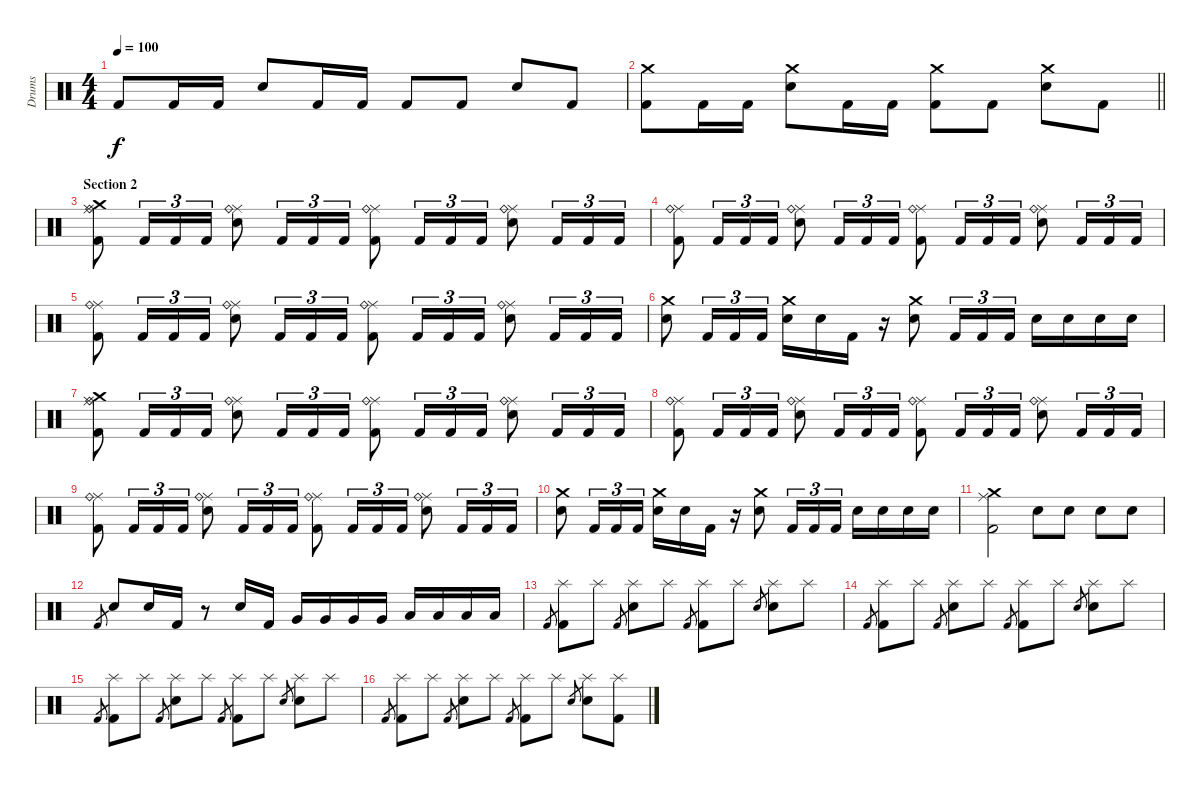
\track ("Drums" "Drums") {instrument percussion}
\staff {score}
\articulation defaults
\ts (4 4)
\tempo 100
\clef neutral
\ks c "Kick (hit) 2".8{dy f} "Kick (hit) 2".16 "Kick (hit) 2".16 "Snare (hit) 2".8 "Kick (hit) 2".16 "Kick (hit) 2".16 "Kick (hit) 2".8 "Kick (hit) 2".8 "Snare (hit) 2".8 "Kick (hit) 2".8
|
\barLineRight lightlight
("Crash medium (hit)" "Kick (hit) 2").8 "Kick (hit) 2".16 "Kick (hit) 2".16 ("Crash medium (hit)" "Snare (hit) 2").8 "Kick (hit) 2".16 "Kick (hit) 2".16 ("Crash medium (hit)" "Kick (hit) 2").8 "Kick (hit) 2".8 ("Crash medium (hit)" "Snare (hit) 2").8 "Kick (hit) 2".8 |
\section ("" "Section 2")
("Kick (hit) 2" "Crash medium (hit)" "Ride (middle)" "Ride (bell)").8 "Kick (hit) 2".16{tu (3 2)} "Kick (hit) 2".16{tu (3 2)} "Kick (hit) 2".16{tu (3 2)} ("Snare (hit) 2" "Ride (middle)" "Ride (bell)").8 "Kick (hit) 2".16{tu (3 2)} "Kick (hit) 2".16{tu (3 2)} "Kick (hit) 2".16{tu (3 2)} ("Kick (hit) 2" "Ride (middle)" "Ride (bell)").8 "Kick (hit) 2".16{tu (3 2)} "Kick (hit) 2".16{tu (3 2)} "Kick (hit) 2".16{tu (3 2)} ("Snare (hit) 2" "Ride (middle)" "Ride (bell)").8 "Kick (hit) 2".16{tu (3 2)} "Kick (hit) 2".16{tu (3 2)} "Kick (hit) 2".16{tu (3 2)} |
("Kick (hit) 2" "Ride (middle)" "Ride (bell)").8 "Kick (hit) 2".16{tu (3 2)} "Kick (hit) 2".16{tu (3 2)} "Kick (hit) 2".16{tu (3 2)} ("Snare (hit) 2" "Ride (middle)" "Ride (bell)").8 "Kick (hit) 2".16{tu (3 2)} "Kick (hit) 2".16{tu (3 2)} "Kick (hit) 2".16{tu (3 2)} ("Kick (hit) 2" "Ride (middle)" "Ride (bell)").8 "Kick (hit) 2".16{tu (3 2)} "Kick (hit) 2".16{tu (3 2)} "Kick (hit) 2".16{tu (3 2)} ("Snare (hit) 2" "Ride (middle)" "Ride (bell)").8 "Kick (hit) 2".16{tu (3 2)} "Kick (hit) 2".16{tu (3 2)} "Kick (hit) 2".16{tu (3 2)} |
("Kick (hit) 2" "Ride (middle)" "Ride (bell)").8 "Kick (hit) 2".16{tu (3 2)} "Kick (hit) 2".16{tu (3 2)} "Kick (hit) 2".16{tu (3 2)} ("Snare (hit) 2" "Ride (middle)" "Ride (bell)").8 "Kick (hit) 2".16{tu (3 2)} "Kick (hit) 2".16{tu (3 2)} "Kick (hit) 2".16{tu (3 2)} ("Kick (hit) 2" "Ride (middle)" "Ride (bell)").8 "Kick (hit) 2".16{tu (3 2)} "Kick (hit) 2".16{tu (3 2)} "Kick (hit) 2".16{tu (3 2)} ("Snare (hit) 2" "Ride (middle)" "Ride (bell)").8 "Kick (hit) 2".16{tu (3 2)} "Kick (hit) 2".16{tu (3 2)} "Kick (hit) 2".16{tu (3 2)} |
("Snare (hit) 2" "Crash medium (hit)").8 "Kick (hit) 2".16{tu (3 2)} "Kick (hit) 2".16{tu (3 2)} "Kick (hit) 2".16{tu (3 2)} ("Snare (hit) 2" "Crash medium (hit)").16 "Snare (hit) 2".16 "Kick (hit) 2".16 r.16 ("Snare (hit) 2" "Crash medium (hit)").8 "Kick (hit) 2".16{tu (3 2)} "Kick (hit) 2".16{tu (3 2)} "Kick (hit) 2".16{tu (3 2)} "Snare (hit) 2".16 "Snare (hit) 2".16 "Snare (hit) 2".16 "Snare (hit) 2".16 |
("Kick (hit) 2" "Crash medium (hit)" "Ride (middle)" "Ride (bell)").8 "Kick (hit) 2".16{tu (3 2)} "Kick (hit) 2".16{tu (3 2)} "Kick (hit) 2".16{tu (3 2)} ("Snare (hit) 2" "Ride (middle)" "Ride (bell)").8 "Kick (hit) 2".16{tu (3 2)} "Kick (hit) 2".16{tu (3 2)} "Kick (hit) 2".16{tu (3 2)} ("Kick (hit) 2" "Ride (middle)" "Ride (bell)").8 "Kick (hit) 2".16{tu (3 2)} "Kick (hit) 2".16{tu (3 2)} "Kick (hit) 2".16{tu (3 2)} ("Snare (hit) 2" "Ride (middle)" "Ride (bell)").8 "Kick (hit) 2".16{tu (3 2)} "Kick (hit) 2".16{tu (3 2)} "Kick (hit) 2".16{tu (3 2)} |
("Kick (hit) 2" "Ride (middle)" "Ride (bell)").8 "Kick (hit) 2".16{tu (3 2)} "Kick (hit) 2".16{tu (3 2)} "Kick (hit) 2".16{tu (3 2)} ("Snare (hit) 2" "Ride (middle)" "Ride (bell)").8 "Kick (hit) 2".16{tu (3 2)} "Kick (hit) 2".16{tu (3 2)} "Kick (hit) 2".16{tu (3 2)} ("Kick (hit) 2" "Ride (middle)" "Ride (bell)").8 "Kick (hit) 2".16{tu (3 2)} "Kick (hit) 2".16{tu (3 2)} "Kick (hit) 2".16{tu (3 2)} ("Snare (hit) 2" "Ride (middle)" "Ride (bell)").8 "Kick (hit) 2".16{tu (3 2)} "Kick (hit) 2".16{tu (3 2)} "Kick (hit) 2".16{tu (3 2)} |
("Kick (hit) 2" "Ride (middle)" "Ride (bell)").8 "Kick (hit) 2".16{tu (3 2)} "Kick (hit) 2".16{tu (3 2)} "Kick (hit) 2".16{tu (3 2)} ("Snare (hit) 2" "Ride (middle)" "Ride (bell)").8 "Kick (hit) 2".16{tu (3 2)} "Kick (hit) 2".16{tu (3 2)} "Kick (hit) 2".16{tu (3 2)} ("Kick (hit) 2" "Ride (middle)" "Ride (bell)").8 "Kick (hit) 2".16{tu (3 2)} "Kick (hit) 2".16{tu (3 2)} "Kick (hit) 2".16{tu (3 2)} ("Snare (hit) 2" "Ride (middle)" "Ride (bell)").8 "Kick (hit) 2".16{tu (3 2)} "Kick (hit) 2".16{tu (3 2)} "Kick (hit) 2".16{tu (3 2)} |
("Snare (hit) 2" "Crash medium (hit)").8 "Kick (hit) 2".16{tu (3 2)} "Kick (hit) 2".16{tu (3 2)} "Kick (hit) 2".16{tu (3 2)} ("Snare (hit) 2" "Crash medium (hit)").16 "Snare (hit) 2".16 "Kick (hit) 2".16 r.16 ("Snare (hit) 2" "Crash medium (hit)").8 "Kick (hit) 2".16{tu (3 2)} "Kick (hit) 2".16{tu (3 2)} "Kick (hit) 2".16{tu (3 2)} "Snare (hit) 2".16 "Snare (hit) 2".16 "Snare (hit) 2".16 "Snare (hit) 2".16 |
("Crash medium (hit)" "Ride (middle)" "Kick (hit) 2").2 "Snare (hit) 2".8 "Snare (hit) 2".8 "Snare (hit) 2".8 "Snare (hit) 2".8 |
"Kick (hit) 2".8{gr} "Snare (hit) 2".8 "Snare (hit) 2".16 "Kick (hit) 2".16 r.8 "Snare (hit) 2".16 "Kick (hit) 2".16 "Very Low Tom (hit)".16 "Very Low Tom (hit)".16 "Very Low Tom (hit)".16 "Very Low Tom (hit)".16 "Low Tom (hit)".16 "Low Tom (hit)".16 "Low Tom (hit)".16 "Low Tom (hit)".16 |
"Kick (hit) 2".8{gr} ("Splash (hit)" "Kick (hit) 2").8 "Splash (hit)".8 "Kick (hit) 2".8{gr} ("Splash (hit)" "Snare (hit) 2").8 "Splash (hit)".8 "Kick (hit) 2".8{gr} ("Splash (hit)" "Kick (hit) 2").8 "Splash (hit)".8 "Snare (hit) 2".8{gr} ("Splash (hit)" "Snare (hit) 2").8 "Splash (hit)".8 |
"Kick (hit) 2".8{gr} ("Splash (hit)" "Kick (hit) 2").8 "Splash (hit)".8 "Kick (hit) 2".8{gr} ("Splash (hit)" "Snare (hit) 2").8 "Splash (hit)".8 "Kick (hit) 2".8{gr} ("Splash (hit)" "Kick (hit) 2").8 "Splash (hit)".8 "Snare (hit) 2".8{gr} ("Splash (hit)" "Snare (hit) 2").8 "Splash (hit)".8 |
"Kick (hit) 2".8{gr} ("Splash (hit)" "Kick (hit) 2").8 "Splash (hit)".8 "Kick (hit) 2".8{gr} ("Splash (hit)" "Snare (hit) 2").8 "Splash (hit)".8 "Kick (hit) 2".8{gr} ("Splash (hit)" "Kick (hit) 2").8 "Splash (hit)".8 "Snare (hit) 2".8{gr} ("Splash (hit)" "Snare (hit) 2").8 "Splash (hit)".8 |
"Kick (hit) 2".8{gr} ("Splash (hit)" "Kick (hit) 2").8 "Splash (hit)".8 "Kick (hit) 2".8{gr} ("Splash (hit)" "Snare (hit) 2").8 "Splash (hit)".8 "Kick (hit) 2".8{gr} ("Splash (hit)" "Kick (hit) 2").8 "Splash (hit)".8 "Snare (hit) 2".8{gr} ("Splash (hit)" "Snare (hit) 2").8 ("Splash (hit)" "Kick (hit) 2").8
